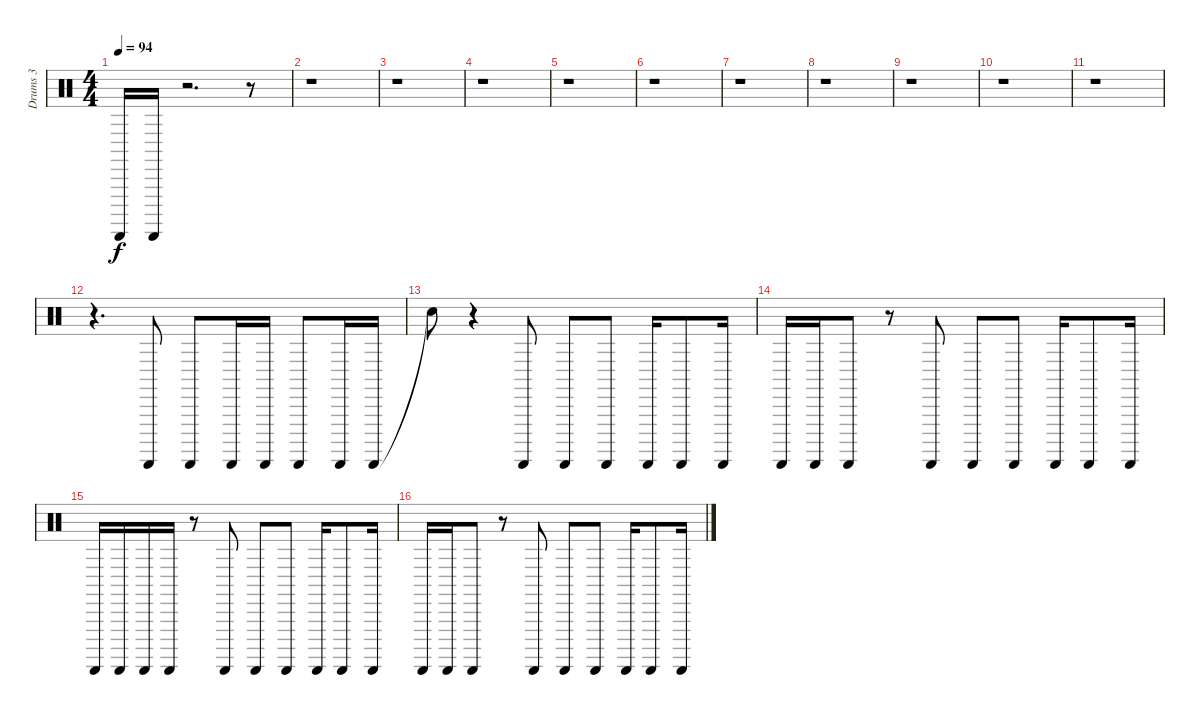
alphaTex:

\track ("Drums 3" "Drums 3") {instrument percussion}
\staff {score}
\articulation defaults
\ts (4 4)
\tempo 94
\clef neutral
\ks c "Guiro (scrap-return)".16{dy f} "Guiro (scrap-return)".16
r.2{d} r.8 |
r.1 |
r.1 |
r.1 |
r.1 |
r.1 |
r.1 |
r.1 |
r.1 |
r.1 |
r.1 |
r.4{d} "Guiro (scrap-return)".8 "Guiro (scrap-return)".8 "Guiro (scrap-return)".16 "Guiro (scrap-return)".16 "Guiro (scrap-return)".8 "Guiro (scrap-return)".16 "Guiro (scrap-return)".16 |
"Snare (hit)"{t}.8 r.4 "Guiro (scrap-return)".8 "Guiro (scrap-return)".8 "Guiro (scrap-return)".8 "Guiro (scrap-return)".16 "Guiro (scrap-return)".8 "Guiro (scrap-return)".16 |
"Guiro (scrap-return)".16 "Guiro (scrap-return)".16 "Guiro (scrap-return)".8 r.8 "Guiro (scrap-return)".8 "Guiro (scrap-return)".8 "Guiro (scrap-return)".8 "Guiro (scrap-return)".16 "Guiro (scrap-return)".8 "Guiro (scrap-return)".16 |
"Guiro (scrap-return)".16 "Guiro (scrap-return)".16 "Guiro (scrap-return)".16 "Guiro (scrap-return)".16 r.8 "Guiro (scrap-return)".8 "Guiro (scrap-return)".8 "Guiro (scrap-return)".8 "Guiro (scrap-return)".16 "Guiro (scrap-return)".8 "Guiro (scrap-return)".16 |
"Guiro (scrap-return)".16 "Guiro (scrap-return)".16 "Guiro (scrap-return)".8 r.8 "Guiro (scrap-return)".8 "Guiro (scrap-return)".8 "Guiro (scrap-return)".8 "Guiro (scrap-return)".16 "Guiro (scrap-return)".8 "Guiro (scrap-return)".16
